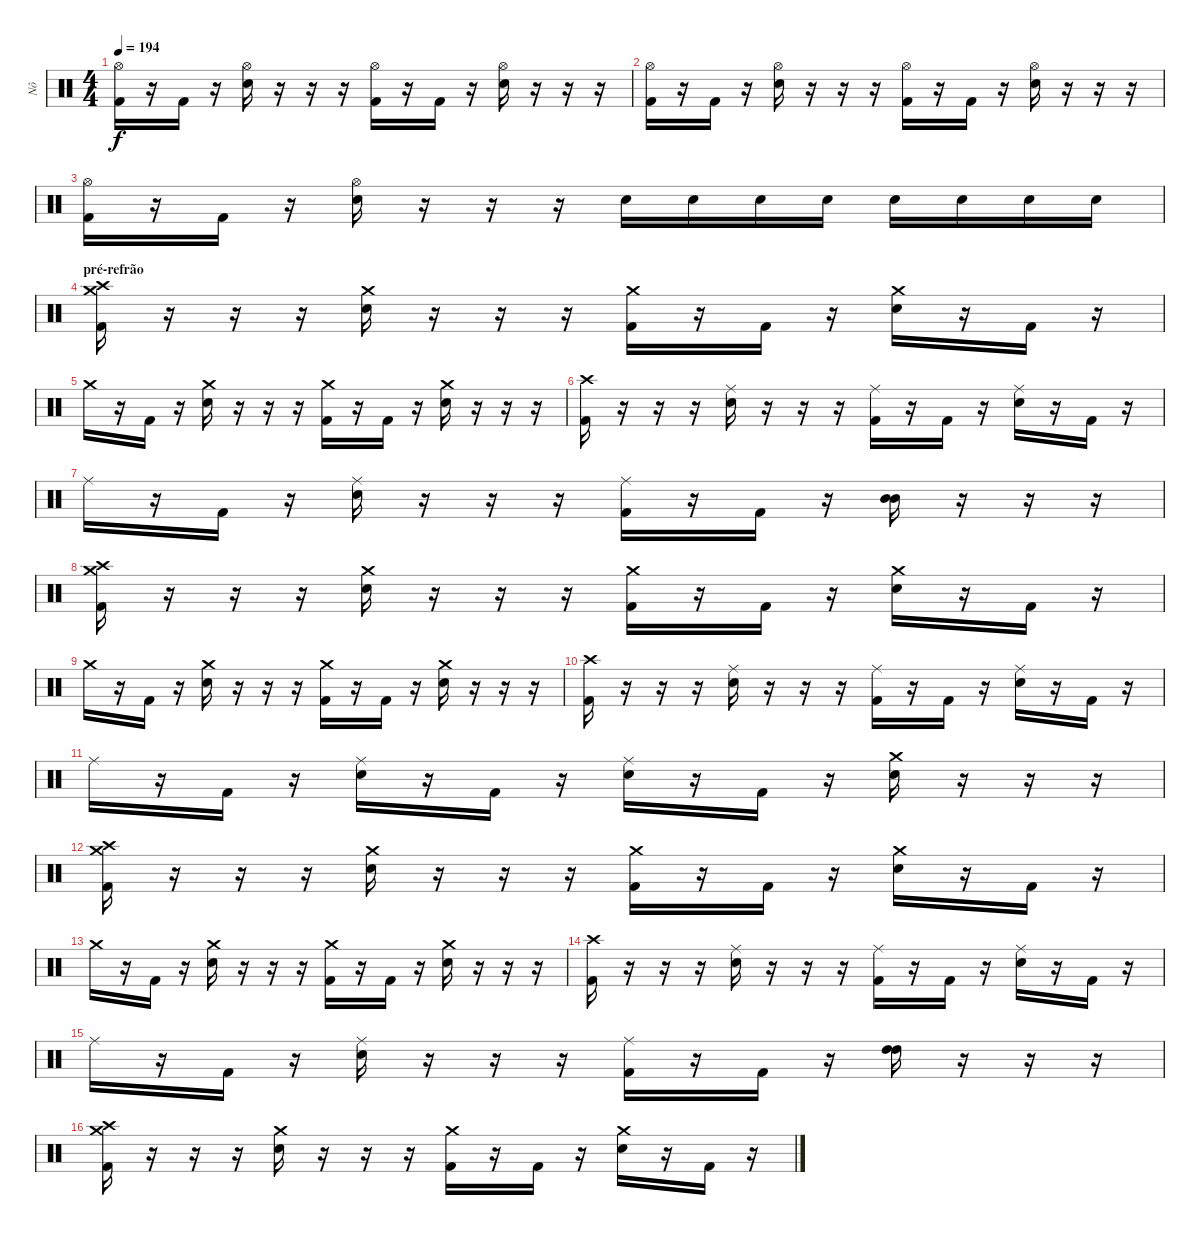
\track ("Nô" "Nô") {instrument percussion}
\staff {score}
\articulation defaults
\ts (4 4)
\tempo 194
\clef neutral
\ks c
("Hi-Hat (open)" "Kick (hit) 2").16{dy f} r.16 "Kick (hit) 2".16 r.16 ("Hi-Hat (open)" "Electric Snare (hit)").16 r.16 r.16 r.16 ("Hi-Hat (open)" "Kick (hit) 2").16 r.16 "Kick (hit) 2".16 r.16 ("Hi-Hat (open)" "Electric Snare (hit)").16 r.16 r.16 r.16 |
("Hi-Hat (open)" "Kick (hit) 2").16 r.16 "Kick (hit) 2".16 r.16 ("Hi-Hat (open)" "Electric Snare (hit)").16 r.16 r.16 r.16 ("Hi-Hat (open)" "Kick (hit) 2").16 r.16 "Kick (hit) 2".16 r.16 ("Hi-Hat (open)" "Electric Snare (hit)").16 r.16 r.16 r.16 |
("Hi-Hat (open)" "Kick (hit) 2").16 r.16 "Kick (hit) 2".16 r.16 ("Hi-Hat (open)" "Electric Snare (hit)").16 r.16 r.16 r.16 "Electric Snare (hit)".16 "Electric Snare (hit)".16 "Electric Snare (hit)".16 "Electric Snare (hit)".16 "Electric Snare (hit)".16 "Electric Snare (hit)".16 "Electric Snare (hit)".16 "Electric Snare (hit)".16 |
\section ("" "pré-refrão")
("Crash medium (hit)" "Crash high (hit)" "Kick (hit) 2").16 r.16 r.16 r.16 ("Crash medium (hit)" "Electric Snare (hit)").16 r.16 r.16 r.16 ("Crash medium (hit)" "Kick (hit) 2").16 r.16 "Kick (hit) 2".16 r.16 ("Crash medium (hit)" "Electric Snare (hit)").16 r.16 "Kick (hit) 2".16 r.16 |
"Crash medium (hit)".16 r.16 "Kick (hit) 2".16 r.16 ("Crash medium (hit)" "Electric Snare (hit)").16 r.16 r.16 r.16 ("Crash medium (hit)" "Kick (hit) 2").16 r.16 "Kick (hit) 2".16 r.16 ("Crash medium (hit)" "Electric Snare (hit)").16 r.16 r.16 r.16 |
("Crash high (hit)" "Kick (hit) 2").16 r.16 r.16 r.16 ("Ride (middle)" "Electric Snare (hit)").16 r.16 r.16 r.16 ("Ride (middle)" "Kick (hit) 2").16 r.16 "Kick (hit) 2".16 r.16 ("Ride (middle)" "Electric Snare (hit)").16 r.16 "Kick (hit) 2".16 r.16 |
"Ride (middle)".16 r.16 "Kick (hit) 2".16 r.16 ("Ride (middle)" "Electric Snare (hit)").16 r.16 r.16 r.16 ("Ride (middle)" "Kick (hit) 2").16 r.16 "Kick (hit) 2".16 r.16 ("Mid Tom (hit)" "Mid Tom (hit)").16 r.16 r.16 r.16 |
("Crash medium (hit)" "Crash high (hit)" "Kick (hit) 2").16 r.16 r.16 r.16 ("Crash medium (hit)" "Electric Snare (hit)").16 r.16 r.16 r.16 ("Crash medium (hit)" "Kick (hit) 2").16 r.16 "Kick (hit) 2".16 r.16 ("Crash medium (hit)" "Electric Snare (hit)").16 r.16 "Kick (hit) 2".16 r.16 |
"Crash medium (hit)".16 r.16 "Kick (hit) 2".16 r.16 ("Crash medium (hit)" "Electric Snare (hit)").16 r.16 r.16 r.16 ("Crash medium (hit)" "Kick (hit) 2").16 r.16 "Kick (hit) 2".16 r.16 ("Crash medium (hit)" "Electric Snare (hit)").16 r.16 r.16 r.16 |
("Crash high (hit)" "Kick (hit) 2").16 r.16 r.16 r.16 ("Ride (middle)" "Electric Snare (hit)").16 r.16 r.16 r.16 ("Ride (middle)" "Kick (hit) 2").16 r.16 "Kick (hit) 2".16 r.16 ("Ride (middle)" "Electric Snare (hit)").16 r.16 "Kick (hit) 2".16 r.16 |
"Ride (middle)".16 r.16 "Kick (hit) 2".16 r.16 ("Ride (middle)" "Electric Snare (hit)").16 r.16 "Kick (hit) 2".16 r.16 ("Ride (middle)" "Electric Snare (hit)").16 r.16 "Kick (hit) 2".16 r.16 ("Crash medium (hit)" "Electric Snare (hit)").16 r.16 r.16 r.16 |
("Crash medium (hit)" "Crash high (hit)" "Kick (hit) 2").16 r.16 r.16 r.16 ("Crash medium (hit)" "Electric Snare (hit)").16 r.16 r.16 r.16 ("Crash medium (hit)" "Kick (hit) 2").16 r.16 "Kick (hit) 2".16 r.16 ("Crash medium (hit)" "Electric Snare (hit)").16 r.16 "Kick (hit) 2".16 r.16 |
"Crash medium (hit)".16 r.16 "Kick (hit) 2".16 r.16 ("Crash medium (hit)" "Electric Snare (hit)").16 r.16 r.16 r.16 ("Crash medium (hit)" "Kick (hit) 2").16 r.16 "Kick (hit) 2".16 r.16 ("Crash medium (hit)" "Electric Snare (hit)").16 r.16 r.16 r.16 |
("Crash high (hit)" "Kick (hit) 2").16 r.16 r.16 r.16 ("Ride (middle)" "Electric Snare (hit)").16 r.16 r.16 r.16 ("Ride (middle)" "Kick (hit) 2").16 r.16 "Kick (hit) 2".16 r.16 ("Ride (middle)" "Electric Snare (hit)").16 r.16 "Kick (hit) 2".16 r.16 |
"Ride (middle)".16 r.16 "Kick (hit) 2".16 r.16 ("Ride (middle)" "Electric Snare (hit)").16 r.16 r.16 r.16 ("Ride (middle)" "Kick (hit) 2").16 r.16 "Kick (hit) 2".16 r.16 ("High Tom (hit)" "High Tom (hit)").16 r.16 r.16 r.16 |
("Crash medium (hit)" "Crash high (hit)" "Kick (hit) 2").16 r.16 r.16 r.16 ("Crash medium (hit)" "Electric Snare (hit)").16 r.16 r.16 r.16 ("Crash medium (hit)" "Kick (hit) 2").16 r.16 "Kick (hit) 2".16 r.16 ("Crash medium (hit)" "Electric Snare (hit)").16 r.16 "Kick (hit) 2".16 r.16
